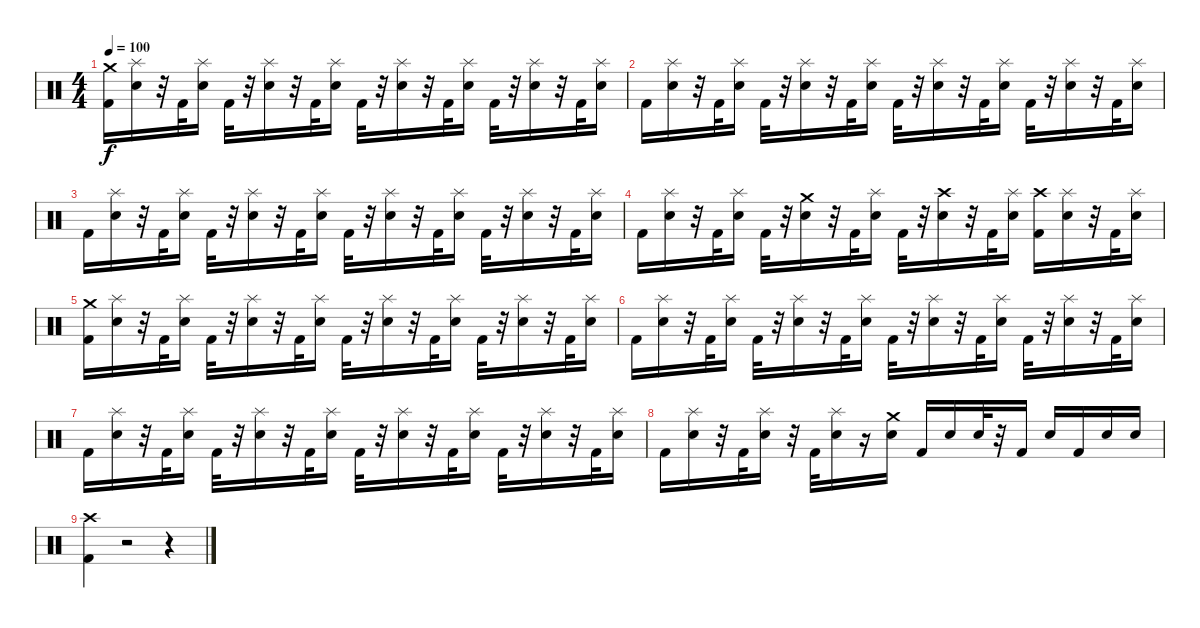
\track "" {instrument percussion}
\staff {score}
\articulation defaults
\ts (4 4)
\tempo 100
\clef neutral
\ks c
("Crash medium (hit)" "Kick (hit) 2").16{dy f} ("Splash (hit)" "Snare (hit) 2").16 r.32 "Kick (hit) 2".32 ("Splash (hit)" "Snare (hit) 2").16 "Kick (hit) 2".32 r.32 ("Splash (hit)" "Snare (hit) 2").16 r.32 "Kick (hit) 2".32 ("Splash (hit)" "Snare (hit) 2").16 "Kick (hit) 2".32 r.32 ("Splash (hit)" "Snare (hit) 2").16 r.32 "Kick (hit) 2".32 ("Splash (hit)" "Snare (hit) 2").16 "Kick (hit) 2".32 r.32 ("Splash (hit)" "Snare (hit) 2").16 r.32 "Kick (hit) 2".32 ("Splash (hit)" "Snare (hit) 2").16 |
"Kick (hit) 2".16 ("Splash (hit)" "Snare (hit) 2").16 r.32 "Kick (hit) 2".32 ("Splash (hit)" "Snare (hit) 2").16 "Kick (hit) 2".32 r.32 ("Splash (hit)" "Snare (hit) 2").16 r.32 "Kick (hit) 2".32 ("Splash (hit)" "Snare (hit) 2").16 "Kick (hit) 2".32 r.32 ("Splash (hit)" "Snare (hit) 2").16 r.32 "Kick (hit) 2".32 ("Splash (hit)" "Snare (hit) 2").16 "Kick (hit) 2".32 r.32 ("Splash (hit)" "Snare (hit) 2").16 r.32 "Kick (hit) 2".32 ("Splash (hit)" "Snare (hit) 2").16 |
"Kick (hit) 2".16 ("Splash (hit)" "Snare (hit) 2").16 r.32 "Kick (hit) 2".32 ("Splash (hit)" "Snare (hit) 2").16 "Kick (hit) 2".32 r.32 ("Splash (hit)" "Snare (hit) 2").16 r.32 "Kick (hit) 2".32 ("Splash (hit)" "Snare (hit) 2").16 "Kick (hit) 2".32 r.32 ("Splash (hit)" "Snare (hit) 2").16 r.32 "Kick (hit) 2".32 ("Splash (hit)" "Snare (hit) 2").16 "Kick (hit) 2".32 r.32 ("Splash (hit)" "Snare (hit) 2").16 r.32 "Kick (hit) 2".32 ("Splash (hit)" "Snare (hit) 2").16 |
"Kick (hit) 2".16 ("Splash (hit)" "Snare (hit) 2").16 r.32 "Kick (hit) 2".32 ("Splash (hit)" "Snare (hit) 2").16 "Kick (hit) 2".32 r.32 ("Crash medium (hit)" "Snare (hit) 2").16 r.32 "Kick (hit) 2".32 ("Splash (hit)" "Snare (hit) 2").16 "Kick (hit) 2".32 r.32 ("Crash high (hit)" "Snare (hit) 2").16 r.32 "Kick (hit) 2".32 ("Splash (hit)" "Snare (hit) 2").16 ("Crash high (hit)" "Kick (hit) 2").16 ("Splash (hit)" "Snare (hit) 2").16 r.32 "Kick (hit) 2".32 ("Splash (hit)" "Snare (hit) 2").16 |
("Crash medium (hit)" "Kick (hit) 2").16 ("Splash (hit)" "Snare (hit) 2").16 r.32 "Kick (hit) 2".32 ("Splash (hit)" "Snare (hit) 2").16 "Kick (hit) 2".32 r.32 ("Splash (hit)" "Snare (hit) 2").16 r.32 "Kick (hit) 2".32 ("Splash (hit)" "Snare (hit) 2").16 "Kick (hit) 2".32 r.32 ("Splash (hit)" "Snare (hit) 2").16 r.32 "Kick (hit) 2".32 ("Splash (hit)" "Snare (hit) 2").16 "Kick (hit) 2".32 r.32 ("Splash (hit)" "Snare (hit) 2").16 r.32 "Kick (hit) 2".32 ("Splash (hit)" "Snare (hit) 2").16 |
"Kick (hit) 2".16 ("Splash (hit)" "Snare (hit) 2").16 r.32 "Kick (hit) 2".32 ("Splash (hit)" "Snare (hit) 2").16 "Kick (hit) 2".32 r.32 ("Splash (hit)" "Snare (hit) 2").16 r.32 "Kick (hit) 2".32 ("Splash (hit)" "Snare (hit) 2").16 "Kick (hit) 2".32 r.32 ("Splash (hit)" "Snare (hit) 2").16 r.32 "Kick (hit) 2".32 ("Splash (hit)" "Snare (hit) 2").16 "Kick (hit) 2".32 r.32 ("Splash (hit)" "Snare (hit) 2").16 r.32 "Kick (hit) 2".32 ("Splash (hit)" "Snare (hit) 2").16 |
"Kick (hit) 2".16 ("Splash (hit)" "Snare (hit) 2").16 r.32 "Kick (hit) 2".32 ("Splash (hit)" "Snare (hit) 2").16 "Kick (hit) 2".32 r.32 ("Splash (hit)" "Snare (hit) 2").16 r.32 "Kick (hit) 2".32 ("Splash (hit)" "Snare (hit) 2").16 "Kick (hit) 2".32 r.32 ("Splash (hit)" "Snare (hit) 2").16 r.32 "Kick (hit) 2".32 ("Splash (hit)" "Snare (hit) 2").16 "Kick (hit) 2".32 r.32 ("Splash (hit)" "Snare (hit) 2").16 r.32 "Kick (hit) 2".32 ("Splash (hit)" "Snare (hit) 2").16 |
"Kick (hit) 2".16 ("Splash (hit)" "Snare (hit) 2").16 r.32 "Kick (hit) 2".32 ("Splash (hit)" "Snare (hit) 2").16 r.32 "Kick (hit) 2".32 ("Splash (hit)" "Snare (hit) 2").16 r.16 ("Snare (hit) 2" "Crash medium (hit)").16 "Kick (hit) 2".16 "Snare (hit) 2".16 "Snare (hit) 2".32 r.32 "Kick (hit) 2".16 "Snare (hit) 2".16 "Kick (hit) 2".16 "Snare (hit) 2".16 "Snare (hit) 2".16 |
("Crash high (hit)" "Kick (hit) 2").4 r.2 r.4
